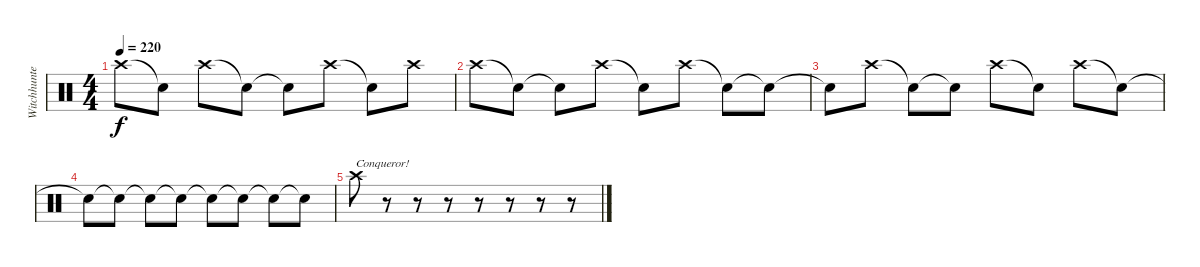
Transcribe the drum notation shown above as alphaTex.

\track ("Witchhunter" "Witchhunte") {instrument percussion}
\staff {score}
\articulation defaults
\ts (4 4)
\tempo 220
\clef neutral
\ks c "Crash high (hit)".8{dy f} "Snare (hit)"{t}.8 "Crash high (hit)".8 "Snare (hit)"{t}.8 "Snare (hit)"{t}.8 "Crash high (hit)".8 "Snare (hit)"{t}.8 "Crash high (hit)".8
|
"Crash high (hit)".8 "Snare (hit)"{t}.8 "Snare (hit)"{t}.8 "Crash high (hit)".8 "Snare (hit)"{t}.8 "Crash high (hit)".8 "Snare (hit)"{t}.8 "Snare (hit)"{t}.8 |
"Snare (hit)"{t}.8 "Crash high (hit)".8 "Snare (hit)"{t}.8 "Snare (hit)"{t}.8 "Crash high (hit)".8 "Snare (hit)"{t}.8 "Crash high (hit)".8 "Snare (hit)"{t}.8 |
"Snare (hit)"{t}.8 "Snare (hit)"{t}.8 "Snare (hit)"{t}.8 "Snare (hit)"{t}.8 "Snare (hit)"{t}.8 "Snare (hit)"{t}.8 "Snare (hit)"{t}.8 "Snare (hit)"{t}.8 |
"Crash high (hit)".8{txt "Conqueror!"} r.8 r.8 r.8 r.8 r.8 r.8 r.8
